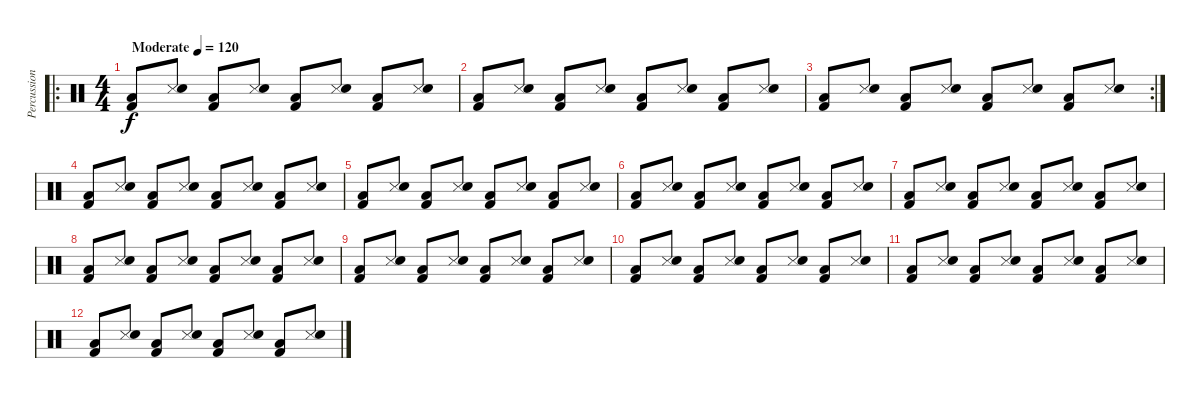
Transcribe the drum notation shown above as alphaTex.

\track ("Percussion" "Percussion") {instrument percussion}
\staff {score}
\articulation defaults
\ro
\ts (4 4)
\tempo (120 "Moderate")
\clef neutral
\ks c
("Low Tom (hit)" "Kick (hit) 2").8{dy f} ("Snare (side stick) 3" "Electric Snare (hit)").8 ("Low Tom (hit)" "Kick (hit) 2").8 ("Snare (side stick) 3" "Electric Snare (hit)").8 ("Low Tom (hit)" "Kick (hit) 2").8 ("Snare (side stick) 3" "Electric Snare (hit)").8 ("Low Tom (hit)" "Kick (hit) 2").8 ("Snare (side stick) 3" "Electric Snare (hit)").8 |
("Low Tom (hit)" "Kick (hit) 2").8 ("Snare (side stick) 3" "Electric Snare (hit)").8 ("Low Tom (hit)" "Kick (hit) 2").8 ("Snare (side stick) 3" "Electric Snare (hit)").8 ("Low Tom (hit)" "Kick (hit) 2").8 ("Snare (side stick) 3" "Electric Snare (hit)").8 ("Low Tom (hit)" "Kick (hit) 2").8 ("Snare (side stick) 3" "Electric Snare (hit)").8 |
\rc 2
("Low Tom (hit)" "Kick (hit) 2").8 ("Snare (side stick) 3" "Electric Snare (hit)").8 ("Low Tom (hit)" "Kick (hit) 2").8 ("Snare (side stick) 3" "Electric Snare (hit)").8 ("Low Tom (hit)" "Kick (hit) 2").8 ("Snare (side stick) 3" "Electric Snare (hit)").8 ("Low Tom (hit)" "Kick (hit) 2").8 ("Snare (side stick) 3" "Electric Snare (hit)").8 |
("Low Tom (hit)" "Kick (hit) 2").8 ("Snare (side stick) 3" "Electric Snare (hit)").8 ("Low Tom (hit)" "Kick (hit) 2").8 ("Snare (side stick) 3" "Electric Snare (hit)").8 ("Low Tom (hit)" "Kick (hit) 2").8 ("Snare (side stick) 3" "Electric Snare (hit)").8 ("Low Tom (hit)" "Kick (hit) 2").8 ("Snare (side stick) 3" "Electric Snare (hit)").8 |
("Low Tom (hit)" "Kick (hit) 2").8 ("Snare (side stick) 3" "Electric Snare (hit)").8 ("Low Tom (hit)" "Kick (hit) 2").8 ("Snare (side stick) 3" "Electric Snare (hit)").8 ("Low Tom (hit)" "Kick (hit) 2").8 ("Snare (side stick) 3" "Electric Snare (hit)").8 ("Low Tom (hit)" "Kick (hit) 2").8 ("Snare (side stick) 3" "Electric Snare (hit)").8 |
("Low Tom (hit)" "Kick (hit) 2").8 ("Snare (side stick) 3" "Electric Snare (hit)").8 ("Low Tom (hit)" "Kick (hit) 2").8 ("Snare (side stick) 3" "Electric Snare (hit)").8 ("Low Tom (hit)" "Kick (hit) 2").8 ("Snare (side stick) 3" "Electric Snare (hit)").8 ("Low Tom (hit)" "Kick (hit) 2").8 ("Snare (side stick) 3" "Electric Snare (hit)").8 |
("Low Tom (hit)" "Kick (hit) 2").8 ("Snare (side stick) 3" "Electric Snare (hit)").8 ("Low Tom (hit)" "Kick (hit) 2").8 ("Snare (side stick) 3" "Electric Snare (hit)").8 ("Low Tom (hit)" "Kick (hit) 2").8 ("Snare (side stick) 3" "Electric Snare (hit)").8 ("Low Tom (hit)" "Kick (hit) 2").8 ("Snare (side stick) 3" "Electric Snare (hit)").8 |
("Low Tom (hit)" "Kick (hit) 2").8 ("Snare (side stick) 3" "Electric Snare (hit)").8 ("Low Tom (hit)" "Kick (hit) 2").8 ("Snare (side stick) 3" "Electric Snare (hit)").8 ("Low Tom (hit)" "Kick (hit) 2").8 ("Snare (side stick) 3" "Electric Snare (hit)").8 ("Low Tom (hit)" "Kick (hit) 2").8 ("Snare (side stick) 3" "Electric Snare (hit)").8 |
("Low Tom (hit)" "Kick (hit) 2").8 ("Snare (side stick) 3" "Electric Snare (hit)").8 ("Low Tom (hit)" "Kick (hit) 2").8 ("Snare (side stick) 3" "Electric Snare (hit)").8 ("Low Tom (hit)" "Kick (hit) 2").8 ("Snare (side stick) 3" "Electric Snare (hit)").8 ("Low Tom (hit)" "Kick (hit) 2").8 ("Snare (side stick) 3" "Electric Snare (hit)").8 |
("Low Tom (hit)" "Kick (hit) 2").8 ("Snare (side stick) 3" "Electric Snare (hit)").8 ("Low Tom (hit)" "Kick (hit) 2").8 ("Snare (side stick) 3" "Electric Snare (hit)").8 ("Low Tom (hit)" "Kick (hit) 2").8 ("Snare (side stick) 3" "Electric Snare (hit)").8 ("Low Tom (hit)" "Kick (hit) 2").8 ("Snare (side stick) 3" "Electric Snare (hit)").8 |
("Low Tom (hit)" "Kick (hit) 2").8 ("Snare (side stick) 3" "Electric Snare (hit)").8 ("Low Tom (hit)" "Kick (hit) 2").8 ("Snare (side stick) 3" "Electric Snare (hit)").8 ("Low Tom (hit)" "Kick (hit) 2").8 ("Snare (side stick) 3" "Electric Snare (hit)").8 ("Low Tom (hit)" "Kick (hit) 2").8 ("Snare (side stick) 3" "Electric Snare (hit)").8 |
("Low Tom (hit)" "Kick (hit) 2").8 ("Snare (side stick) 3" "Electric Snare (hit)").8 ("Low Tom (hit)" "Kick (hit) 2").8 ("Snare (side stick) 3" "Electric Snare (hit)").8 ("Low Tom (hit)" "Kick (hit) 2").8 ("Snare (side stick) 3" "Electric Snare (hit)").8 ("Low Tom (hit)" "Kick (hit) 2").8 ("Snare (side stick) 3" "Electric Snare (hit)").8
